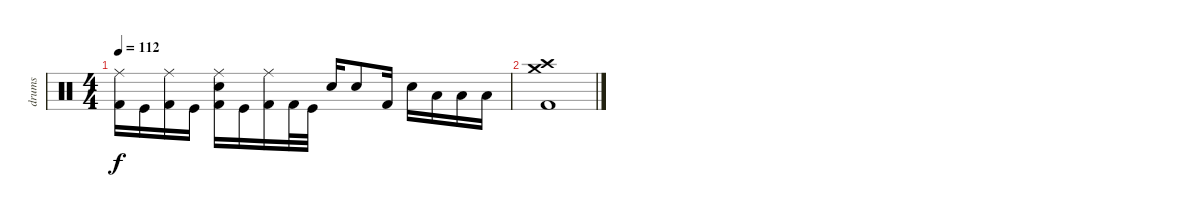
\track ("drums" "drums") {instrument percussion}
\staff {score}
\articulation defaults
\ts (4 4)
\tempo 112
\clef neutral
\ks c
("Ride (middle)" "Kick (hit) 2").16{dy f} "Kick (hit)".16 ("Ride (middle)" "Kick (hit) 2").16 "Kick (hit)".16 ("Ride (middle)" "Electric Snare (hit)" "Kick (hit) 2").16 "Kick (hit)".16 ("Ride (middle)" "Kick (hit) 2").16 "Kick (hit) 2".32 "Kick (hit)".32 "Electric Snare (hit)".16 "Electric Snare (hit)".8 "Kick (hit) 2".16 "Electric Snare (hit)".16 "Low Tom (hit)".16 "Low Tom (hit)".16 "Low Floor Tom (hit)".16 |
("Crash high (hit)" "Crash medium (hit)" "Kick (hit) 2").1
